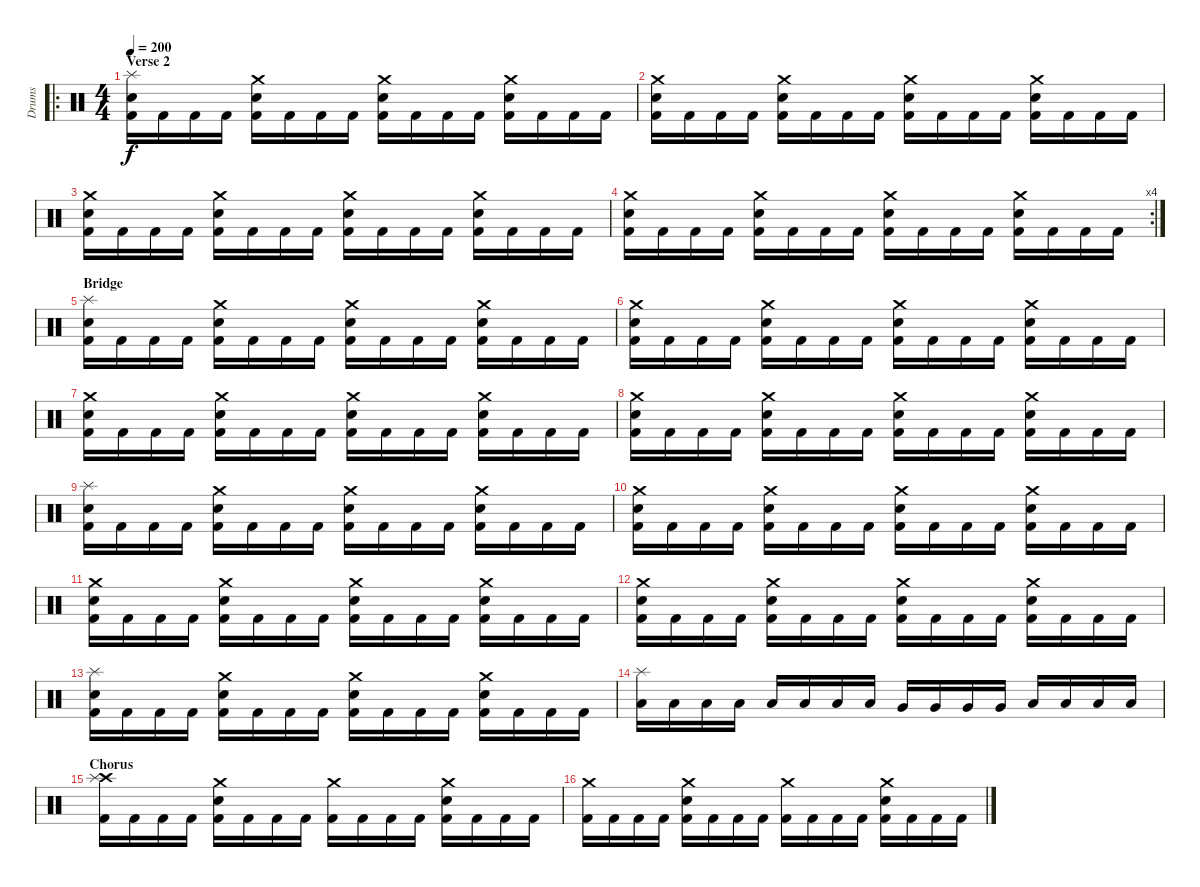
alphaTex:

\track ("Drums" "Drums") {instrument percussion}
\staff {score}
\articulation defaults
\ro
\ts (4 4)
\section ("" "Verse 2")
\tempo 200
\clef neutral
\ks c
("Kick (hit) 2" "Snare (hit) 2" "Splash (hit)").16{dy f} "Kick (hit) 2".16 "Kick (hit) 2".16 "Kick (hit) 2".16 ("Kick (hit) 2" "Crash medium (hit)" "Snare (hit) 2").16 "Kick (hit) 2".16 "Kick (hit) 2".16 "Kick (hit) 2".16 ("Kick (hit) 2" "Crash medium (hit)" "Snare (hit) 2").16 "Kick (hit) 2".16 "Kick (hit) 2".16 "Kick (hit) 2".16 ("Kick (hit) 2" "Crash medium (hit)" "Snare (hit) 2").16 "Kick (hit) 2".16 "Kick (hit) 2".16 "Kick (hit) 2".16 |
("Kick (hit) 2" "Crash medium (hit)" "Snare (hit) 2").16 "Kick (hit) 2".16 "Kick (hit) 2".16 "Kick (hit) 2".16 ("Kick (hit) 2" "Crash medium (hit)" "Snare (hit) 2").16 "Kick (hit) 2".16 "Kick (hit) 2".16 "Kick (hit) 2".16 ("Kick (hit) 2" "Crash medium (hit)" "Snare (hit) 2").16 "Kick (hit) 2".16 "Kick (hit) 2".16 "Kick (hit) 2".16 ("Kick (hit) 2" "Crash medium (hit)" "Snare (hit) 2").16 "Kick (hit) 2".16 "Kick (hit) 2".16 "Kick (hit) 2".16 |
("Kick (hit) 2" "Crash medium (hit)" "Snare (hit) 2").16 "Kick (hit) 2".16 "Kick (hit) 2".16 "Kick (hit) 2".16 ("Kick (hit) 2" "Crash medium (hit)" "Snare (hit) 2").16 "Kick (hit) 2".16 "Kick (hit) 2".16 "Kick (hit) 2".16 ("Kick (hit) 2" "Crash medium (hit)" "Snare (hit) 2").16 "Kick (hit) 2".16 "Kick (hit) 2".16 "Kick (hit) 2".16 ("Kick (hit) 2" "Crash medium (hit)" "Snare (hit) 2").16 "Kick (hit) 2".16 "Kick (hit) 2".16 "Kick (hit) 2".16 |
\rc 4
("Kick (hit) 2" "Crash medium (hit)" "Snare (hit) 2").16 "Kick (hit) 2".16 "Kick (hit) 2".16 "Kick (hit) 2".16 ("Kick (hit) 2" "Crash medium (hit)" "Snare (hit) 2").16 "Kick (hit) 2".16 "Kick (hit) 2".16 "Kick (hit) 2".16 ("Kick (hit) 2" "Crash medium (hit)" "Snare (hit) 2").16 "Kick (hit) 2".16 "Kick (hit) 2".16 "Kick (hit) 2".16 ("Kick (hit) 2" "Crash medium (hit)" "Snare (hit) 2").16 "Kick (hit) 2".16 "Kick (hit) 2".16 "Kick (hit) 2".16 |
\section ("" "Bridge")
("Kick (hit) 2" "Snare (hit) 2" "Splash (hit)").16 "Kick (hit) 2".16 "Kick (hit) 2".16 "Kick (hit) 2".16 ("Kick (hit) 2" "Crash medium (hit)" "Snare (hit) 2").16 "Kick (hit) 2".16 "Kick (hit) 2".16 "Kick (hit) 2".16 ("Kick (hit) 2" "Crash medium (hit)" "Snare (hit) 2").16 "Kick (hit) 2".16 "Kick (hit) 2".16 "Kick (hit) 2".16 ("Kick (hit) 2" "Crash medium (hit)" "Snare (hit) 2").16 "Kick (hit) 2".16 "Kick (hit) 2".16 "Kick (hit) 2".16 |
("Kick (hit) 2" "Crash medium (hit)" "Snare (hit) 2").16 "Kick (hit) 2".16 "Kick (hit) 2".16 "Kick (hit) 2".16 ("Kick (hit) 2" "Crash medium (hit)" "Snare (hit) 2").16 "Kick (hit) 2".16 "Kick (hit) 2".16 "Kick (hit) 2".16 ("Kick (hit) 2" "Crash medium (hit)" "Snare (hit) 2").16 "Kick (hit) 2".16 "Kick (hit) 2".16 "Kick (hit) 2".16 ("Kick (hit) 2" "Crash medium (hit)" "Snare (hit) 2").16 "Kick (hit) 2".16 "Kick (hit) 2".16 "Kick (hit) 2".16 |
("Kick (hit) 2" "Crash medium (hit)" "Snare (hit) 2").16 "Kick (hit) 2".16 "Kick (hit) 2".16 "Kick (hit) 2".16 ("Kick (hit) 2" "Crash medium (hit)" "Snare (hit) 2").16 "Kick (hit) 2".16 "Kick (hit) 2".16 "Kick (hit) 2".16 ("Kick (hit) 2" "Crash medium (hit)" "Snare (hit) 2").16 "Kick (hit) 2".16 "Kick (hit) 2".16 "Kick (hit) 2".16 ("Kick (hit) 2" "Crash medium (hit)" "Snare (hit) 2").16 "Kick (hit) 2".16 "Kick (hit) 2".16 "Kick (hit) 2".16 |
("Kick (hit) 2" "Crash medium (hit)" "Snare (hit) 2").16 "Kick (hit) 2".16 "Kick (hit) 2".16 "Kick (hit) 2".16 ("Kick (hit) 2" "Crash medium (hit)" "Snare (hit) 2").16 "Kick (hit) 2".16 "Kick (hit) 2".16 "Kick (hit) 2".16 ("Kick (hit) 2" "Crash medium (hit)" "Snare (hit) 2").16 "Kick (hit) 2".16 "Kick (hit) 2".16 "Kick (hit) 2".16 ("Kick (hit) 2" "Crash medium (hit)" "Snare (hit) 2").16 "Kick (hit) 2".16 "Kick (hit) 2".16 "Kick (hit) 2".16 |
("Kick (hit) 2" "Snare (hit) 2" "Splash (hit)").16 "Kick (hit) 2".16 "Kick (hit) 2".16 "Kick (hit) 2".16 ("Kick (hit) 2" "Crash medium (hit)" "Snare (hit) 2").16 "Kick (hit) 2".16 "Kick (hit) 2".16 "Kick (hit) 2".16 ("Kick (hit) 2" "Crash medium (hit)" "Snare (hit) 2").16 "Kick (hit) 2".16 "Kick (hit) 2".16 "Kick (hit) 2".16 ("Kick (hit) 2" "Crash medium (hit)" "Snare (hit) 2").16 "Kick (hit) 2".16 "Kick (hit) 2".16 "Kick (hit) 2".16 |
("Kick (hit) 2" "Crash medium (hit)" "Snare (hit) 2").16 "Kick (hit) 2".16 "Kick (hit) 2".16 "Kick (hit) 2".16 ("Kick (hit) 2" "Crash medium (hit)" "Snare (hit) 2").16 "Kick (hit) 2".16 "Kick (hit) 2".16 "Kick (hit) 2".16 ("Kick (hit) 2" "Crash medium (hit)" "Snare (hit) 2").16 "Kick (hit) 2".16 "Kick (hit) 2".16 "Kick (hit) 2".16 ("Kick (hit) 2" "Crash medium (hit)" "Snare (hit) 2").16 "Kick (hit) 2".16 "Kick (hit) 2".16 "Kick (hit) 2".16 |
("Kick (hit) 2" "Crash medium (hit)" "Snare (hit) 2").16 "Kick (hit) 2".16 "Kick (hit) 2".16 "Kick (hit) 2".16 ("Kick (hit) 2" "Crash medium (hit)" "Snare (hit) 2").16 "Kick (hit) 2".16 "Kick (hit) 2".16 "Kick (hit) 2".16 ("Kick (hit) 2" "Crash medium (hit)" "Snare (hit) 2").16 "Kick (hit) 2".16 "Kick (hit) 2".16 "Kick (hit) 2".16 ("Kick (hit) 2" "Crash medium (hit)" "Snare (hit) 2").16 "Kick (hit) 2".16 "Kick (hit) 2".16 "Kick (hit) 2".16 |
("Kick (hit) 2" "Crash medium (hit)" "Snare (hit) 2").16 "Kick (hit) 2".16 "Kick (hit) 2".16 "Kick (hit) 2".16 ("Kick (hit) 2" "Crash medium (hit)" "Snare (hit) 2").16 "Kick (hit) 2".16 "Kick (hit) 2".16 "Kick (hit) 2".16 ("Kick (hit) 2" "Crash medium (hit)" "Snare (hit) 2").16 "Kick (hit) 2".16 "Kick (hit) 2".16 "Kick (hit) 2".16 ("Kick (hit) 2" "Crash medium (hit)" "Snare (hit) 2").16 "Kick (hit) 2".16 "Kick (hit) 2".16 "Kick (hit) 2".16 |
("Kick (hit) 2" "Snare (hit) 2" "Splash (hit)").16 "Kick (hit) 2".16 "Kick (hit) 2".16 "Kick (hit) 2".16 ("Kick (hit) 2" "Crash medium (hit)" "Snare (hit) 2").16 "Kick (hit) 2".16 "Kick (hit) 2".16 "Kick (hit) 2".16 ("Kick (hit) 2" "Crash medium (hit)" "Snare (hit) 2").16 "Kick (hit) 2".16 "Kick (hit) 2".16 "Kick (hit) 2".16 ("Kick (hit) 2" "Crash medium (hit)" "Snare (hit) 2").16 "Kick (hit) 2".16 "Kick (hit) 2".16 "Kick (hit) 2".16 |
("Low Floor Tom (hit)" "Splash (hit)").16 "Low Floor Tom (hit)".16 "Low Floor Tom (hit)".16 "Low Floor Tom (hit)".16 "Low Floor Tom (hit)".16 "Low Floor Tom (hit)".16 "Low Floor Tom (hit)".16 "Low Floor Tom (hit)".16 "Very Low Tom (hit)".16 "Very Low Tom (hit)".16 "Very Low Tom (hit)".16 "Very Low Tom (hit)".16 "Low Tom (hit)".16 "Low Tom (hit)".16 "Low Tom (hit)".16 "Low Tom (hit)".16 |
\section ("" "Chorus")
("Kick (hit) 2" "Crash high (hit)" "Splash (hit)").16 "Kick (hit) 2".16 "Kick (hit) 2".16 "Kick (hit) 2".16 ("Kick (hit) 2" "Crash medium (hit)" "Snare (hit) 2").16 "Kick (hit) 2".16 "Kick (hit) 2".16 "Kick (hit) 2".16 ("Kick (hit) 2" "Crash medium (hit)").16 "Kick (hit) 2".16 "Kick (hit) 2".16 "Kick (hit) 2".16 ("Kick (hit) 2" "Crash medium (hit)" "Snare (hit) 2").16 "Kick (hit) 2".16 "Kick (hit) 2".16 "Kick (hit) 2".16 |
("Kick (hit) 2" "Crash medium (hit)").16 "Kick (hit) 2".16 "Kick (hit) 2".16 "Kick (hit) 2".16 ("Kick (hit) 2" "Crash medium (hit)" "Snare (hit) 2").16 "Kick (hit) 2".16 "Kick (hit) 2".16 "Kick (hit) 2".16 ("Kick (hit) 2" "Crash medium (hit)").16 "Kick (hit) 2".16 "Kick (hit) 2".16 "Kick (hit) 2".16 ("Kick (hit) 2" "Crash medium (hit)" "Snare (hit) 2").16 "Kick (hit) 2".16 "Kick (hit) 2".16 "Kick (hit) 2".16
